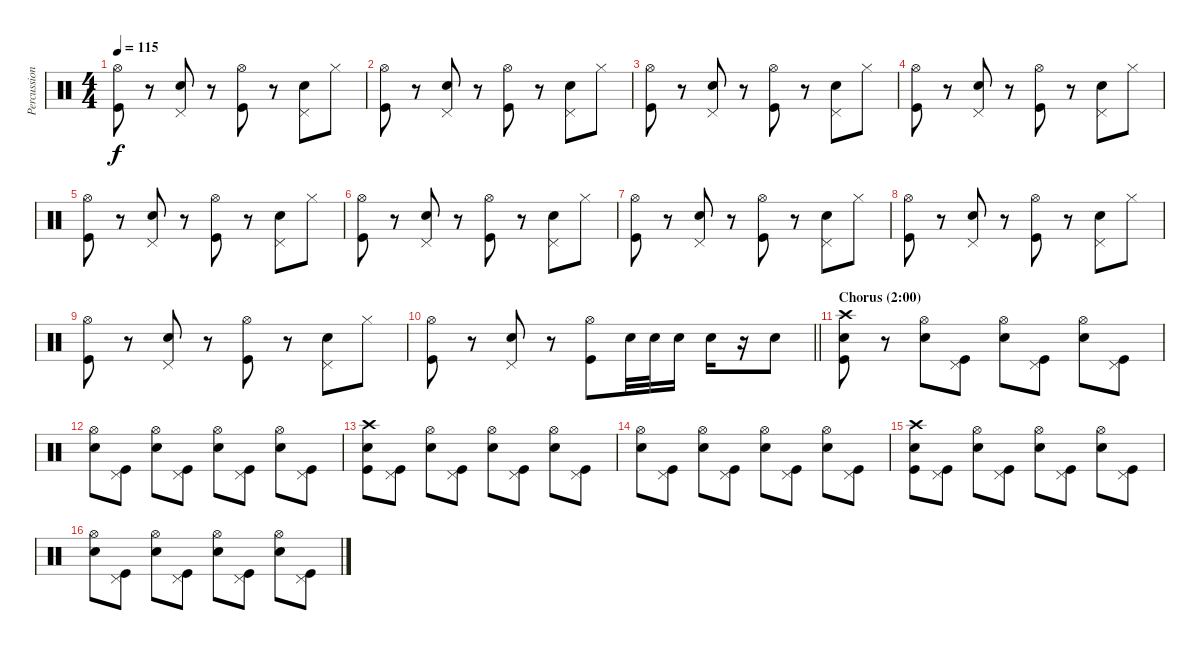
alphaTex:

\track ("Percussioni" "Percussion") {instrument percussion}
\staff {score}
\articulation defaults
\ts (4 4)
\tempo 115
\clef neutral
\ks c
("Hi-Hat (open)" "Kick (hit)").8{dy f} r.8 ("Pedal Hi-Hat (hit)" "Electric Snare (hit)").8 r.8 ("Hi-Hat (open)" "Kick (hit)").8 r.8 ("Pedal Hi-Hat (hit)" "Electric Snare (hit)").8 "Hi-Hat (closed)".8 |
("Hi-Hat (open)" "Kick (hit)").8 r.8 ("Pedal Hi-Hat (hit)" "Electric Snare (hit)").8 r.8 ("Hi-Hat (open)" "Kick (hit)").8 r.8 ("Pedal Hi-Hat (hit)" "Electric Snare (hit)").8 "Hi-Hat (closed)".8 |
("Hi-Hat (open)" "Kick (hit)").8 r.8 ("Pedal Hi-Hat (hit)" "Electric Snare (hit)").8 r.8 ("Hi-Hat (open)" "Kick (hit)").8 r.8 ("Pedal Hi-Hat (hit)" "Electric Snare (hit)").8 "Hi-Hat (closed)".8 |
("Hi-Hat (open)" "Kick (hit)").8 r.8 ("Pedal Hi-Hat (hit)" "Electric Snare (hit)").8 r.8 ("Hi-Hat (open)" "Kick (hit)").8 r.8 ("Pedal Hi-Hat (hit)" "Electric Snare (hit)").8 "Hi-Hat (closed)".8 |
("Hi-Hat (open)" "Kick (hit)").8 r.8 ("Pedal Hi-Hat (hit)" "Electric Snare (hit)").8 r.8 ("Hi-Hat (open)" "Kick (hit)").8 r.8 ("Pedal Hi-Hat (hit)" "Electric Snare (hit)").8 "Hi-Hat (closed)".8 |
("Hi-Hat (open)" "Kick (hit)").8 r.8 ("Pedal Hi-Hat (hit)" "Electric Snare (hit)").8 r.8 ("Hi-Hat (open)" "Kick (hit)").8 r.8 ("Pedal Hi-Hat (hit)" "Electric Snare (hit)").8 "Hi-Hat (closed)".8 |
("Hi-Hat (open)" "Kick (hit)").8 r.8 ("Pedal Hi-Hat (hit)" "Electric Snare (hit)").8 r.8 ("Hi-Hat (open)" "Kick (hit)").8 r.8 ("Pedal Hi-Hat (hit)" "Electric Snare (hit)").8 "Hi-Hat (closed)".8 |
("Hi-Hat (open)" "Kick (hit)").8 r.8 ("Pedal Hi-Hat (hit)" "Electric Snare (hit)").8 r.8 ("Hi-Hat (open)" "Kick (hit)").8 r.8 ("Pedal Hi-Hat (hit)" "Electric Snare (hit)").8 "Hi-Hat (closed)".8 |
("Hi-Hat (open)" "Kick (hit)").8 r.8 ("Pedal Hi-Hat (hit)" "Electric Snare (hit)").8 r.8 ("Hi-Hat (open)" "Kick (hit)").8 r.8 ("Pedal Hi-Hat (hit)" "Electric Snare (hit)").8 "Hi-Hat (closed)".8 |
\barLineRight lightlight
("Hi-Hat (open)" "Kick (hit)").8 r.8 ("Pedal Hi-Hat (hit)" "Electric Snare (hit)").8 r.8 ("Hi-Hat (open)" "Kick (hit)").8 "Electric Snare (hit)".32 "Electric Snare (hit)".32 "Electric Snare (hit)".16 "Electric Snare (hit)".16 r.16 "Electric Snare (hit)".8 |
\section ("" "Chorus (2:00)")
("Crash high (hit)" "Electric Snare (hit)" "Kick (hit)").8 r.8 ("Hi-Hat (open)" "Electric Snare (hit)").8 ("Pedal Hi-Hat (hit)" "Kick (hit)").8 ("Hi-Hat (open)" "Electric Snare (hit)").8 ("Pedal Hi-Hat (hit)" "Kick (hit)").8 ("Hi-Hat (open)" "Electric Snare (hit)").8 ("Pedal Hi-Hat (hit)" "Kick (hit)").8 |
("Hi-Hat (open)" "Electric Snare (hit)").8 ("Pedal Hi-Hat (hit)" "Kick (hit)").8 ("Hi-Hat (open)" "Electric Snare (hit)").8 ("Pedal Hi-Hat (hit)" "Kick (hit)").8 ("Hi-Hat (open)" "Electric Snare (hit)").8 ("Pedal Hi-Hat (hit)" "Kick (hit)").8 ("Hi-Hat (open)" "Electric Snare (hit)").8 ("Pedal Hi-Hat (hit)" "Kick (hit)").8 |
("Crash high (hit)" "Electric Snare (hit)" "Kick (hit)").8 ("Pedal Hi-Hat (hit)" "Kick (hit)").8 ("Hi-Hat (open)" "Electric Snare (hit)").8 ("Pedal Hi-Hat (hit)" "Kick (hit)").8 ("Hi-Hat (open)" "Electric Snare (hit)").8 ("Pedal Hi-Hat (hit)" "Kick (hit)").8 ("Hi-Hat (open)" "Electric Snare (hit)").8 ("Pedal Hi-Hat (hit)" "Kick (hit)").8 |
("Hi-Hat (open)" "Electric Snare (hit)").8 ("Pedal Hi-Hat (hit)" "Kick (hit)").8 ("Hi-Hat (open)" "Electric Snare (hit)").8 ("Pedal Hi-Hat (hit)" "Kick (hit)").8 ("Hi-Hat (open)" "Electric Snare (hit)").8 ("Pedal Hi-Hat (hit)" "Kick (hit)").8 ("Hi-Hat (open)" "Electric Snare (hit)").8 ("Pedal Hi-Hat (hit)" "Kick (hit)").8 |
("Crash high (hit)" "Electric Snare (hit)" "Kick (hit)").8 ("Pedal Hi-Hat (hit)" "Kick (hit)").8 ("Hi-Hat (open)" "Electric Snare (hit)").8 ("Pedal Hi-Hat (hit)" "Kick (hit)").8 ("Hi-Hat (open)" "Electric Snare (hit)").8 ("Pedal Hi-Hat (hit)" "Kick (hit)").8 ("Hi-Hat (open)" "Electric Snare (hit)").8 ("Pedal Hi-Hat (hit)" "Kick (hit)").8 |
("Hi-Hat (open)" "Electric Snare (hit)").8 ("Pedal Hi-Hat (hit)" "Kick (hit)").8 ("Hi-Hat (open)" "Electric Snare (hit)").8 ("Pedal Hi-Hat (hit)" "Kick (hit)").8 ("Hi-Hat (open)" "Electric Snare (hit)").8 ("Pedal Hi-Hat (hit)" "Kick (hit)").8 ("Hi-Hat (open)" "Electric Snare (hit)").8 ("Pedal Hi-Hat (hit)" "Kick (hit)").8
